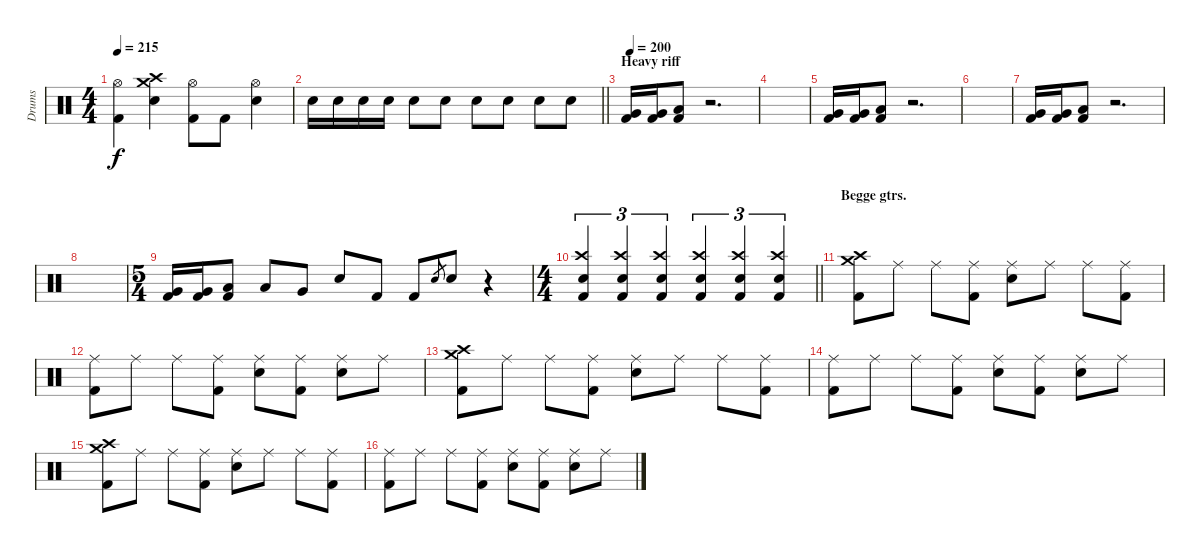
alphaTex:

\track ("Drums" "Drums") {instrument percussion}
\staff {score}
\articulation defaults
\ts (4 4)
\tempo 215
\clef neutral
\ks c
("Hi-Hat (open)" "Kick (hit) 2").4{dy f} ("Crash medium (hit)" "Crash high (hit)" "Snare (hit) 2").4 ("Hi-Hat (open)" "Kick (hit) 2").8 "Kick (hit) 2".8 ("Hi-Hat (open)" "Snare (hit) 2").4 |
\barLineRight lightlight "Snare (hit) 2".16 "Snare (hit) 2".16 "Snare (hit) 2".16 "Snare (hit) 2".16 "Snare (hit) 2".8 "Snare (hit) 2".8 "Snare (hit) 2".8 "Snare (hit) 2".8 "Snare (hit) 2".8 "Snare (hit) 2".8
|
\section ("" "Heavy riff")
\tempo 200
("Very Low Tom (hit)" "Kick (hit) 2").16 ("Very Low Tom (hit)" "Kick (hit) 2").16 ("Low Floor Tom (hit)" "Kick (hit) 2").8 r.2{d} |
|
("Very Low Tom (hit)" "Kick (hit) 2").16 ("Very Low Tom (hit)" "Kick (hit) 2").16 ("Low Floor Tom (hit)" "Kick (hit) 2").8 r.2{d} |
|
("Very Low Tom (hit)" "Kick (hit) 2").16 ("Very Low Tom (hit)" "Kick (hit) 2").16 ("Low Floor Tom (hit)" "Kick (hit) 2").8 r.2{d} |
|
\ts (5 4)
("Very Low Tom (hit)" "Kick (hit) 2").16 ("Very Low Tom (hit)" "Kick (hit) 2").16 ("Low Floor Tom (hit)" "Kick (hit) 2").8 "Low Tom (hit)".8 "Very Low Tom (hit)".8 "Snare (hit) 2".8 "Kick (hit) 2".8 "Kick (hit) 2".8 "Snare (hit) 2".8{gr} "Snare (hit) 2".8 r.4 |
\ts (4 4)
\barLineRight lightlight
("Crash high (hit)" "Snare (hit) 2" "Kick (hit) 2").4{tu (3 2)} ("Crash high (hit)" "Snare (hit) 2" "Kick (hit) 2").4{tu (3 2)} ("Crash high (hit)" "Snare (hit) 2" "Kick (hit) 2").4{tu (3 2)} ("Crash high (hit)" "Snare (hit) 2" "Kick (hit) 2").4{tu (3 2)} ("Crash high (hit)" "Snare (hit) 2" "Kick (hit) 2").4{tu (3 2)} ("Crash high (hit)" "Snare (hit) 2" "Kick (hit) 2").4{tu (3 2)} |
\section ("" "Begge gtrs.")
("Crash medium (hit)" "Crash high (hit)" "Kick (hit) 2").8 "Ride (middle)".8 "Ride (middle)".8 ("Ride (middle)" "Kick (hit) 2").8 ("Ride (middle)" "Snare (hit) 2").8 "Ride (middle)".8 "Ride (middle)".8 ("Ride (middle)" "Kick (hit) 2").8 |
("Ride (middle)" "Kick (hit) 2").8 "Ride (middle)".8 "Ride (middle)".8 ("Ride (middle)" "Kick (hit) 2").8 ("Ride (middle)" "Snare (hit) 2").8 ("Ride (middle)" "Kick (hit) 2").8 ("Ride (middle)" "Snare (hit) 2").8 "Ride (middle)".8 |
("Crash medium (hit)" "Crash high (hit)" "Kick (hit) 2").8 "Ride (middle)".8 "Ride (middle)".8 ("Ride (middle)" "Kick (hit) 2").8 ("Ride (middle)" "Snare (hit) 2").8 "Ride (middle)".8 "Ride (middle)".8 ("Ride (middle)" "Kick (hit) 2").8 |
("Ride (middle)" "Kick (hit) 2").8 "Ride (middle)".8 "Ride (middle)".8 ("Ride (middle)" "Kick (hit) 2").8 ("Ride (middle)" "Snare (hit) 2").8 ("Ride (middle)" "Kick (hit) 2").8 ("Ride (middle)" "Snare (hit) 2").8 "Ride (middle)".8 |
("Crash medium (hit)" "Crash high (hit)" "Kick (hit) 2").8 "Ride (middle)".8 "Ride (middle)".8 ("Ride (middle)" "Kick (hit) 2").8 ("Ride (middle)" "Snare (hit) 2").8 "Ride (middle)".8 "Ride (middle)".8 ("Ride (middle)" "Kick (hit) 2").8 |
("Ride (middle)" "Kick (hit) 2").8 "Ride (middle)".8 "Ride (middle)".8 ("Ride (middle)" "Kick (hit) 2").8 ("Ride (middle)" "Snare (hit) 2").8 ("Ride (middle)" "Kick (hit) 2").8 ("Ride (middle)" "Snare (hit) 2").8 "Ride (middle)".8
